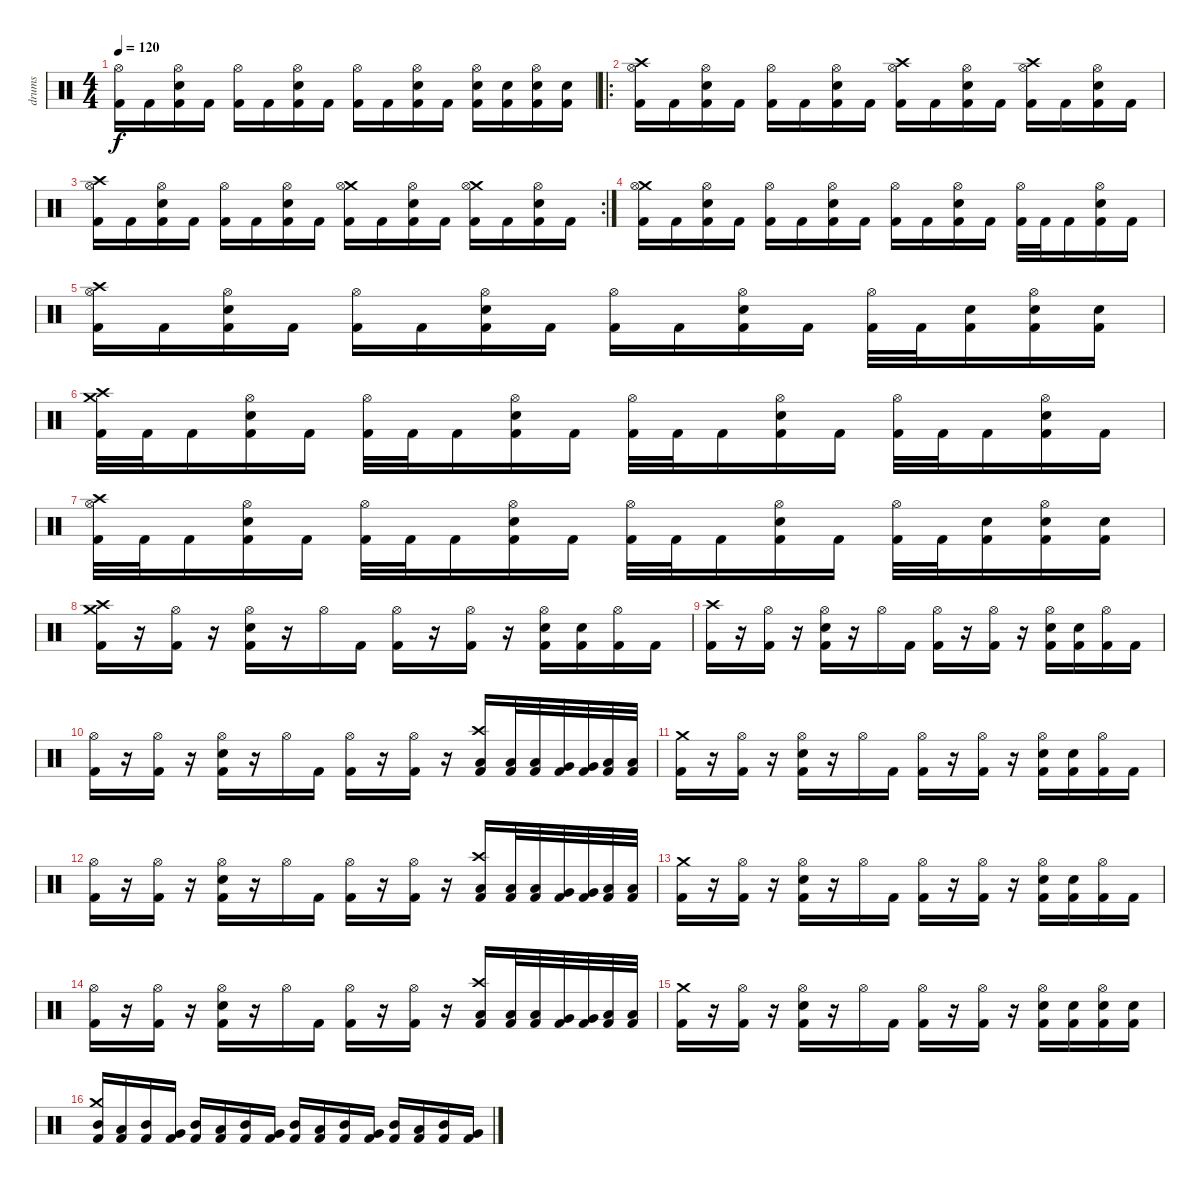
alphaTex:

\track ("drums" "drums") {instrument percussion}
\staff {score}
\articulation defaults
\ts (4 4)
\tempo 120
\clef neutral
\ks c
("Hi-Hat (open)" "Kick (hit) 2").16{dy f} "Kick (hit) 2".16 ("Hi-Hat (open)" "Electric Snare (hit)" "Kick (hit) 2").16 "Kick (hit) 2".16 ("Hi-Hat (open)" "Kick (hit) 2").16 "Kick (hit) 2".16 ("Hi-Hat (open)" "Electric Snare (hit)" "Kick (hit) 2").16 "Kick (hit) 2".16 ("Hi-Hat (open)" "Kick (hit) 2").16 "Kick (hit) 2".16 ("Hi-Hat (open)" "Electric Snare (hit)" "Kick (hit) 2").16 "Kick (hit) 2".16 ("Hi-Hat (open)" "Electric Snare (hit)" "Kick (hit) 2").16 ("Electric Snare (hit)" "Kick (hit) 2").16 ("Hi-Hat (open)" "Electric Snare (hit)" "Kick (hit) 2").16 ("Electric Snare (hit)" "Kick (hit) 2").16 |
\ro
("Crash high (hit)" "Hi-Hat (open)" "Kick (hit) 2").16 "Kick (hit) 2".16 ("Hi-Hat (open)" "Electric Snare (hit)" "Kick (hit) 2").16 "Kick (hit) 2".16 ("Hi-Hat (open)" "Kick (hit) 2").16 "Kick (hit) 2".16 ("Hi-Hat (open)" "Electric Snare (hit)" "Kick (hit) 2").16 "Kick (hit) 2".16 ("Crash high (hit)" "Hi-Hat (open)" "Kick (hit) 2").16 "Kick (hit) 2".16 ("Hi-Hat (open)" "Electric Snare (hit)" "Kick (hit) 2").16 "Kick (hit) 2".16 ("Crash high (hit)" "Hi-Hat (open)" "Kick (hit) 2").16 "Kick (hit) 2".16 ("Hi-Hat (open)" "Electric Snare (hit)" "Kick (hit) 2").16 "Kick (hit) 2".16 |
\rc 2
("Crash high (hit)" "Hi-Hat (open)" "Kick (hit) 2").16 "Kick (hit) 2".16 ("Hi-Hat (open)" "Electric Snare (hit)" "Kick (hit) 2").16 "Kick (hit) 2".16 ("Hi-Hat (open)" "Kick (hit) 2").16 "Kick (hit) 2".16 ("Hi-Hat (open)" "Electric Snare (hit)" "Kick (hit) 2").16 "Kick (hit) 2".16 ("Crash medium (hit)" "Hi-Hat (open)" "Kick (hit) 2").16 "Kick (hit) 2".16 ("Hi-Hat (open)" "Electric Snare (hit)" "Kick (hit) 2").16 "Kick (hit) 2".16 ("Crash medium (hit)" "Hi-Hat (open)" "Kick (hit) 2").16 "Kick (hit) 2".16 ("Hi-Hat (open)" "Electric Snare (hit)" "Kick (hit) 2").16 "Kick (hit) 2".16 |
("Crash medium (hit)" "Hi-Hat (open)" "Kick (hit) 2").16 "Kick (hit) 2".16 ("Hi-Hat (open)" "Electric Snare (hit)" "Kick (hit) 2").16 "Kick (hit) 2".16 ("Hi-Hat (open)" "Kick (hit) 2").16 "Kick (hit) 2".16 ("Hi-Hat (open)" "Electric Snare (hit)" "Kick (hit) 2").16 "Kick (hit) 2".16 ("Hi-Hat (open)" "Kick (hit) 2").16 "Kick (hit) 2".16 ("Hi-Hat (open)" "Electric Snare (hit)" "Kick (hit) 2").16 "Kick (hit) 2".16 ("Hi-Hat (open)" "Kick (hit) 2").32 "Kick (hit) 2".32 "Kick (hit) 2".16 ("Hi-Hat (open)" "Electric Snare (hit)" "Kick (hit) 2").16 "Kick (hit) 2".16 |
("Crash high (hit)" "Hi-Hat (open)" "Kick (hit) 2").16 "Kick (hit) 2".16 ("Hi-Hat (open)" "Electric Snare (hit)" "Kick (hit) 2").16 "Kick (hit) 2".16 ("Hi-Hat (open)" "Kick (hit) 2").16 "Kick (hit) 2".16 ("Hi-Hat (open)" "Electric Snare (hit)" "Kick (hit) 2").16 "Kick (hit) 2".16 ("Hi-Hat (open)" "Kick (hit) 2").16 "Kick (hit) 2".16 ("Hi-Hat (open)" "Electric Snare (hit)" "Kick (hit) 2").16 "Kick (hit) 2".16 ("Hi-Hat (open)" "Kick (hit) 2").32 "Kick (hit) 2".32 ("Electric Snare (hit)" "Kick (hit) 2").16 ("Hi-Hat (open)" "Electric Snare (hit)" "Kick (hit) 2").16 ("Electric Snare (hit)" "Kick (hit) 2").16 |
("Crash medium (hit)" "Crash high (hit)" "Kick (hit) 2").32 "Kick (hit) 2".32 "Kick (hit) 2".16 ("Hi-Hat (open)" "Electric Snare (hit)" "Kick (hit) 2").16 "Kick (hit) 2".16 ("Hi-Hat (open)" "Kick (hit) 2").32 "Kick (hit) 2".32 "Kick (hit) 2".16 ("Hi-Hat (open)" "Electric Snare (hit)" "Kick (hit) 2").16 "Kick (hit) 2".16 ("Hi-Hat (open)" "Kick (hit) 2").32 "Kick (hit) 2".32 "Kick (hit) 2".16 ("Hi-Hat (open)" "Electric Snare (hit)" "Kick (hit) 2").16 "Kick (hit) 2".16 ("Hi-Hat (open)" "Kick (hit) 2").32 "Kick (hit) 2".32 "Kick (hit) 2".16 ("Hi-Hat (open)" "Electric Snare (hit)" "Kick (hit) 2").16 "Kick (hit) 2".16 |
("Crash high (hit)" "Hi-Hat (open)" "Kick (hit) 2").32 "Kick (hit) 2".32 "Kick (hit) 2".16 ("Hi-Hat (open)" "Electric Snare (hit)" "Kick (hit) 2").16 "Kick (hit) 2".16 ("Hi-Hat (open)" "Kick (hit) 2").32 "Kick (hit) 2".32 "Kick (hit) 2".16 ("Hi-Hat (open)" "Electric Snare (hit)" "Kick (hit) 2").16 "Kick (hit) 2".16 ("Hi-Hat (open)" "Kick (hit) 2").32 "Kick (hit) 2".32 "Kick (hit) 2".16 ("Hi-Hat (open)" "Electric Snare (hit)" "Kick (hit) 2").16 "Kick (hit) 2".16 ("Hi-Hat (open)" "Kick (hit) 2").32 "Kick (hit) 2".32 ("Electric Snare (hit)" "Kick (hit) 2").16 ("Hi-Hat (open)" "Electric Snare (hit)" "Kick (hit) 2").16 ("Electric Snare (hit)" "Kick (hit) 2").16 |
("Crash high (hit)" "Crash medium (hit)" "Kick (hit) 2").16 r.16 ("Hi-Hat (open)" "Kick (hit) 2").16 r.16 ("Hi-Hat (open)" "Electric Snare (hit)" "Kick (hit) 2").16 r.16 "Hi-Hat (open)".16 "Kick (hit) 2".16 ("Hi-Hat (open)" "Kick (hit) 2").16 r.16 ("Hi-Hat (open)" "Kick (hit) 2").16 r.16 ("Hi-Hat (open)" "Electric Snare (hit)" "Kick (hit) 2").16 ("Electric Snare (hit)" "Kick (hit) 2").16 ("Hi-Hat (open)" "Kick (hit) 2").16 "Kick (hit) 2".16 |
("Crash high (hit)" "Kick (hit) 2").16 r.16 ("Hi-Hat (open)" "Kick (hit) 2").16 r.16 ("Hi-Hat (open)" "Electric Snare (hit)" "Kick (hit) 2").16 r.16 "Hi-Hat (open)".16 "Kick (hit) 2".16 ("Hi-Hat (open)" "Kick (hit) 2").16 r.16 ("Hi-Hat (open)" "Kick (hit) 2").16 r.16 ("Hi-Hat (open)" "Electric Snare (hit)" "Kick (hit) 2").16 ("Electric Snare (hit)" "Kick (hit) 2").16 ("Hi-Hat (open)" "Kick (hit) 2").16 "Kick (hit) 2".16 |
("Hi-Hat (open)" "Kick (hit) 2").16 r.16 ("Hi-Hat (open)" "Kick (hit) 2").16 r.16 ("Hi-Hat (open)" "Electric Snare (hit)" "Kick (hit) 2").16 r.16 "Hi-Hat (open)".16 "Kick (hit) 2".16 ("Hi-Hat (open)" "Kick (hit) 2").16 r.16 ("Hi-Hat (open)" "Kick (hit) 2").16 r.16 ("Crash high (hit)" "Low Tom (hit)" "Kick (hit) 2").16 ("Low Tom (hit)" "Kick (hit) 2").32 ("Low Tom (hit)" "Kick (hit) 2").32 ("Very Low Tom (hit)" "Kick (hit) 2").32 ("Very Low Tom (hit)" "Kick (hit) 2").32 ("Low Floor Tom (hit)" "Kick (hit) 2").32 ("Low Floor Tom (hit)" "Kick (hit) 2").32 |
("Crash medium (hit)" "Kick (hit) 2").16 r.16 ("Hi-Hat (open)" "Kick (hit) 2").16 r.16 ("Hi-Hat (open)" "Electric Snare (hit)" "Kick (hit) 2").16 r.16 "Hi-Hat (open)".16 "Kick (hit) 2".16 ("Hi-Hat (open)" "Kick (hit) 2").16 r.16 ("Hi-Hat (open)" "Kick (hit) 2").16 r.16 ("Hi-Hat (open)" "Electric Snare (hit)" "Kick (hit) 2").16 ("Electric Snare (hit)" "Kick (hit) 2").16 ("Hi-Hat (open)" "Kick (hit) 2").16 "Kick (hit) 2".16 |
("Hi-Hat (open)" "Kick (hit) 2").16 r.16 ("Hi-Hat (open)" "Kick (hit) 2").16 r.16 ("Hi-Hat (open)" "Electric Snare (hit)" "Kick (hit) 2").16 r.16 "Hi-Hat (open)".16 "Kick (hit) 2".16 ("Hi-Hat (open)" "Kick (hit) 2").16 r.16 ("Hi-Hat (open)" "Kick (hit) 2").16 r.16 ("Crash high (hit)" "Low Tom (hit)" "Kick (hit) 2").16 ("Low Tom (hit)" "Kick (hit) 2").32 ("Low Tom (hit)" "Kick (hit) 2").32 ("Very Low Tom (hit)" "Kick (hit) 2").32 ("Very Low Tom (hit)" "Kick (hit) 2").32 ("Low Floor Tom (hit)" "Kick (hit) 2").32 ("Low Floor Tom (hit)" "Kick (hit) 2").32 |
("Crash medium (hit)" "Kick (hit) 2").16 r.16 ("Hi-Hat (open)" "Kick (hit) 2").16 r.16 ("Hi-Hat (open)" "Electric Snare (hit)" "Kick (hit) 2").16 r.16 "Hi-Hat (open)".16 "Kick (hit) 2".16 ("Hi-Hat (open)" "Kick (hit) 2").16 r.16 ("Hi-Hat (open)" "Kick (hit) 2").16 r.16 ("Hi-Hat (open)" "Electric Snare (hit)" "Kick (hit) 2").16 ("Electric Snare (hit)" "Kick (hit) 2").16 ("Hi-Hat (open)" "Kick (hit) 2").16 "Kick (hit) 2".16 |
("Hi-Hat (open)" "Kick (hit) 2").16 r.16 ("Hi-Hat (open)" "Kick (hit) 2").16 r.16 ("Hi-Hat (open)" "Electric Snare (hit)" "Kick (hit) 2").16 r.16 "Hi-Hat (open)".16 "Kick (hit) 2".16 ("Hi-Hat (open)" "Kick (hit) 2").16 r.16 ("Hi-Hat (open)" "Kick (hit) 2").16 r.16 ("Crash high (hit)" "Low Tom (hit)" "Kick (hit) 2").16 ("Low Tom (hit)" "Kick (hit) 2").32 ("Low Tom (hit)" "Kick (hit) 2").32 ("Very Low Tom (hit)" "Kick (hit) 2").32 ("Very Low Tom (hit)" "Kick (hit) 2").32 ("Low Floor Tom (hit)" "Kick (hit) 2").32 ("Low Floor Tom (hit)" "Kick (hit) 2").32 |
("Crash medium (hit)" "Kick (hit) 2").16 r.16 ("Hi-Hat (open)" "Kick (hit) 2").16 r.16 ("Hi-Hat (open)" "Electric Snare (hit)" "Kick (hit) 2").16 r.16 "Hi-Hat (open)".16 "Kick (hit) 2".16 ("Hi-Hat (open)" "Kick (hit) 2").16 r.16 ("Hi-Hat (open)" "Kick (hit) 2").16 r.16 ("Hi-Hat (open)" "Electric Snare (hit)" "Kick (hit) 2").16 ("Electric Snare (hit)" "Kick (hit) 2").16 ("Hi-Hat (open)" "Electric Snare (hit)" "Kick (hit) 2").16 ("Electric Snare (hit)" "Kick (hit) 2").16 |
("Crash medium (hit)" "Mid Tom (hit)" "Kick (hit) 2").16 ("Low Tom (hit)" "Kick (hit) 2").16 ("Mid Tom (hit)" "Kick (hit) 2").16 ("Very Low Tom (hit)" "Kick (hit) 2").16 ("Mid Tom (hit)" "Kick (hit) 2").16 ("Low Tom (hit)" "Kick (hit) 2").16 ("Mid Tom (hit)" "Kick (hit) 2").16 ("Very Low Tom (hit)" "Kick (hit) 2").16 ("Mid Tom (hit)" "Kick (hit) 2").16 ("Low Tom (hit)" "Kick (hit) 2").16 ("Mid Tom (hit)" "Kick (hit) 2").16 ("Very Low Tom (hit)" "Kick (hit) 2").16 ("Mid Tom (hit)" "Kick (hit) 2").16 ("Low Tom (hit)" "Kick (hit) 2").16 ("Mid Tom (hit)" "Kick (hit) 2").16 ("Very Low Tom (hit)" "Kick (hit) 2").16
